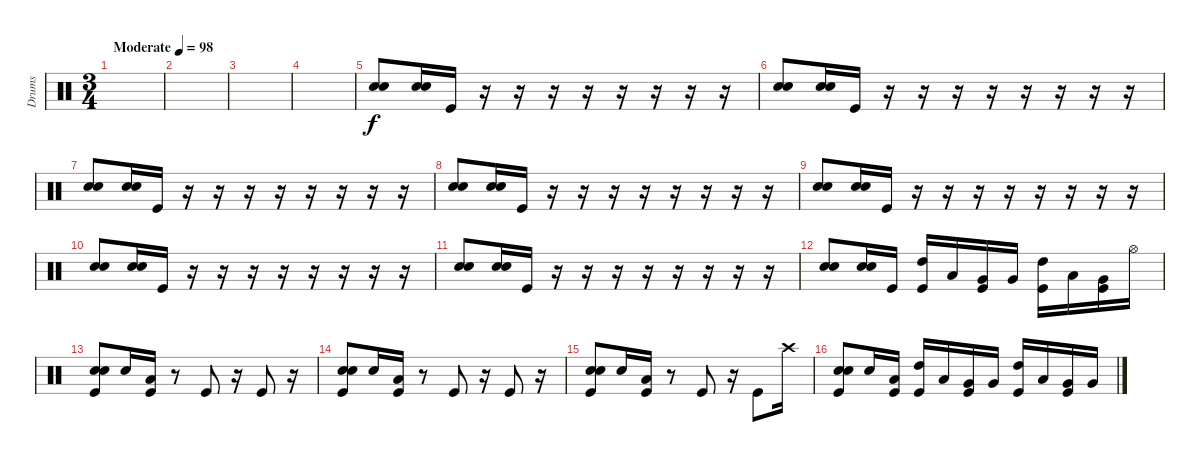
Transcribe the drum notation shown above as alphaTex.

\track ("Drums" "Drums") {instrument percussion}
\staff {score}
\articulation defaults
\ts (3 4)
\tempo (98 "Moderate")
\clef neutral
\ks c
|
|
|
|
("Snare (hit) 2" "Snare (hit) 2").8 ("Snare (hit) 2" "Snare (hit) 2").16 "Kick (hit)".16 r.16 r.16 r.16 r.16 r.16 r.16 r.16 r.16 |
("Snare (hit) 2" "Snare (hit) 2").8 ("Snare (hit) 2" "Snare (hit) 2").16 "Kick (hit)".16 r.16 r.16 r.16 r.16 r.16 r.16 r.16 r.16 |
("Snare (hit) 2" "Snare (hit) 2").8 ("Snare (hit) 2" "Snare (hit) 2").16 "Kick (hit)".16 r.16 r.16 r.16 r.16 r.16 r.16 r.16 r.16 |
("Snare (hit) 2" "Snare (hit) 2").8 ("Snare (hit) 2" "Snare (hit) 2").16 "Kick (hit)".16 r.16 r.16 r.16 r.16 r.16 r.16 r.16 r.16 |
("Snare (hit) 2" "Snare (hit) 2").8 ("Snare (hit) 2" "Snare (hit) 2").16 "Kick (hit)".16 r.16 r.16 r.16 r.16 r.16 r.16 r.16 r.16 |
("Snare (hit) 2" "Snare (hit) 2").8 ("Snare (hit) 2" "Snare (hit) 2").16 "Kick (hit)".16 r.16 r.16 r.16 r.16 r.16 r.16 r.16 r.16 |
("Snare (hit) 2" "Snare (hit) 2").8 ("Snare (hit) 2" "Snare (hit) 2").16 "Kick (hit)".16 r.16 r.16 r.16 r.16 r.16 r.16 r.16 r.16 |
("Snare (hit) 2" "Snare (hit) 2").8 ("Snare (hit) 2" "Snare (hit) 2").16 "Kick (hit)".16 ("Kick (hit)" "High Tom (hit)").16 "Low Tom (hit)".16 ("Very Low Tom (hit)" "Kick (hit)").16 "Very Low Tom (hit)".16 ("Kick (hit)" "High Tom (hit)").16 "Low Tom (hit)".16 ("Very Low Tom (hit)" "Kick (hit)").16 "Hi-Hat (open)".16 |
("Kick (hit)" "Snare (hit) 2" "Snare (hit) 2").8 "Snare (hit) 2".16 ("Low Floor Tom (hit)" "Kick (hit)").16 r.8 "Kick (hit)".8 r.16{beam split} "Kick (hit)".8 r.16 |
("Kick (hit)" "Snare (hit) 2" "Snare (hit) 2").8 "Snare (hit) 2".16 ("Low Floor Tom (hit)" "Kick (hit)").16 r.8 "Kick (hit)".8 r.16{beam split} "Kick (hit)".8 r.16 |
("Kick (hit)" "Snare (hit) 2" "Snare (hit) 2").8 "Snare (hit) 2".16 ("Low Floor Tom (hit)" "Kick (hit)").16 r.8 "Kick (hit)".8 r.16{beam split} "Kick (hit)".8 "Crash high (hit)".16 |
("Kick (hit)" "Snare (hit) 2" "Snare (hit) 2").8 "Snare (hit) 2".16 ("Low Floor Tom (hit)" "Kick (hit)").16 ("Kick (hit)" "High Tom (hit)").16 "Low Tom (hit)".16 ("Very Low Tom (hit)" "Kick (hit)").16 "Very Low Tom (hit)".16 ("Kick (hit)" "High Tom (hit)").16 "Low Tom (hit)".16 ("Very Low Tom (hit)" "Kick (hit)").16 "Very Low Tom (hit)".16
